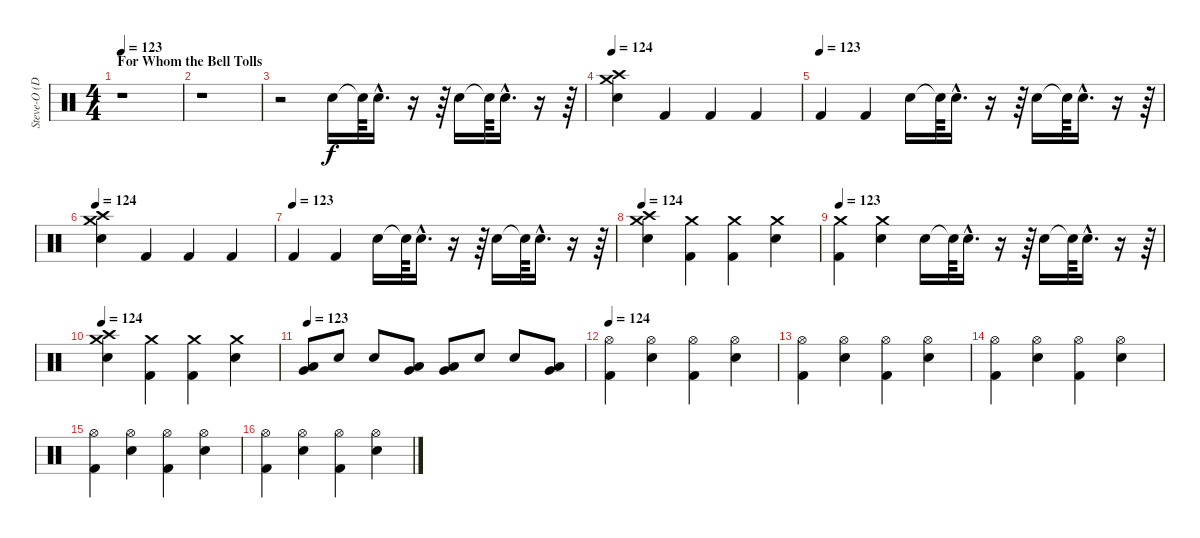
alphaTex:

\track ("Steve-O (Drums)" "Steve-O (D") {instrument percussion}
\staff {score}
\articulation defaults
\ts (4 4)
\section ("" "For Whom the Bell Tolls")
\tempo 123
\clef neutral
\ks c
r.1{dy f} |
r.1 |
r.2 "Electric Snare (hit)".16 "Snare (hit)"{t}.64 "Electric Snare (hit)"{hac}.16{d} r.16 r.64 "Electric Snare (hit)".16 "Snare (hit)"{t}.64 "Electric Snare (hit)"{hac}.16{d} r.16 r.64 |
\tempo 124
("Crash high (hit)" "Crash medium (hit)" "Electric Snare (hit)").4 "Kick (hit) 2".4 "Kick (hit) 2".4 "Kick (hit) 2".4 |
\tempo (123)
"Kick (hit) 2".4 "Kick (hit) 2".4 "Electric Snare (hit)".16 "Snare (hit)"{t}.64 "Electric Snare (hit)"{hac}.16{d} r.16 r.64 "Electric Snare (hit)".16 "Snare (hit)"{t}.64 "Electric Snare (hit)"{hac}.16{d} r.16 r.64 |
\tempo 124
("Crash high (hit)" "Crash medium (hit)" "Electric Snare (hit)").4 "Kick (hit) 2".4 "Kick (hit) 2".4 "Kick (hit) 2".4 |
\tempo (123)
"Kick (hit) 2".4 "Kick (hit) 2".4 "Electric Snare (hit)".16 "Snare (hit)"{t}.64 "Electric Snare (hit)"{hac}.16{d} r.16 r.64 "Electric Snare (hit)".16 "Snare (hit)"{t}.64 "Electric Snare (hit)"{hac}.16{d} r.16 r.64 |
\tempo 124
("Crash high (hit)" "Crash medium (hit)" "Electric Snare (hit)").4 ("Crash medium (hit)" "Kick (hit) 2").4 ("Crash medium (hit)" "Kick (hit) 2").4 ("Crash medium (hit)" "Electric Snare (hit)").4 |
\tempo 123
("Crash medium (hit)" "Kick (hit) 2").4 ("Crash medium (hit)" "Electric Snare (hit)").4 "Electric Snare (hit)".16 "Snare (hit)"{t}.64 "Electric Snare (hit)"{hac}.16{d} r.16 r.64 "Electric Snare (hit)".16 "Snare (hit)"{t}.64 "Electric Snare (hit)"{hac}.16{d} r.16 r.64 |
\tempo 124
("Crash high (hit)" "Crash medium (hit)" "Electric Snare (hit)").4 ("Crash medium (hit)" "Kick (hit) 2").4 ("Crash medium (hit)" "Kick (hit) 2").4 ("Crash medium (hit)" "Electric Snare (hit)").4 |
\tempo 123
("Low Floor Tom (hit)" "Very Low Tom (hit)").8 "Electric Snare (hit)".8 "Electric Snare (hit)".8 ("Low Floor Tom (hit)" "Very Low Tom (hit)").8 ("Low Floor Tom (hit)" "Very Low Tom (hit)").8 "Electric Snare (hit)".8 "Electric Snare (hit)".8 ("Low Floor Tom (hit)" "Very Low Tom (hit)").8 |
\tempo 124
("Hi-Hat (open)" "Kick (hit) 2").4 ("Hi-Hat (open)" "Electric Snare (hit)").4 ("Hi-Hat (open)" "Kick (hit) 2").4 ("Hi-Hat (open)" "Electric Snare (hit)").4 |
("Hi-Hat (open)" "Kick (hit) 2").4 ("Hi-Hat (open)" "Electric Snare (hit)").4 ("Hi-Hat (open)" "Kick (hit) 2").4 ("Hi-Hat (open)" "Electric Snare (hit)").4 |
("Hi-Hat (open)" "Kick (hit) 2").4 ("Hi-Hat (open)" "Electric Snare (hit)").4 ("Hi-Hat (open)" "Kick (hit) 2").4 ("Hi-Hat (open)" "Electric Snare (hit)").4 |
("Hi-Hat (open)" "Kick (hit) 2").4 ("Hi-Hat (open)" "Electric Snare (hit)").4 ("Hi-Hat (open)" "Kick (hit) 2").4 ("Hi-Hat (open)" "Electric Snare (hit)").4 |
("Hi-Hat (open)" "Kick (hit) 2").4 ("Hi-Hat (open)" "Electric Snare (hit)").4 ("Hi-Hat (open)" "Kick (hit) 2").4 ("Hi-Hat (open)" "Electric Snare (hit)").4
